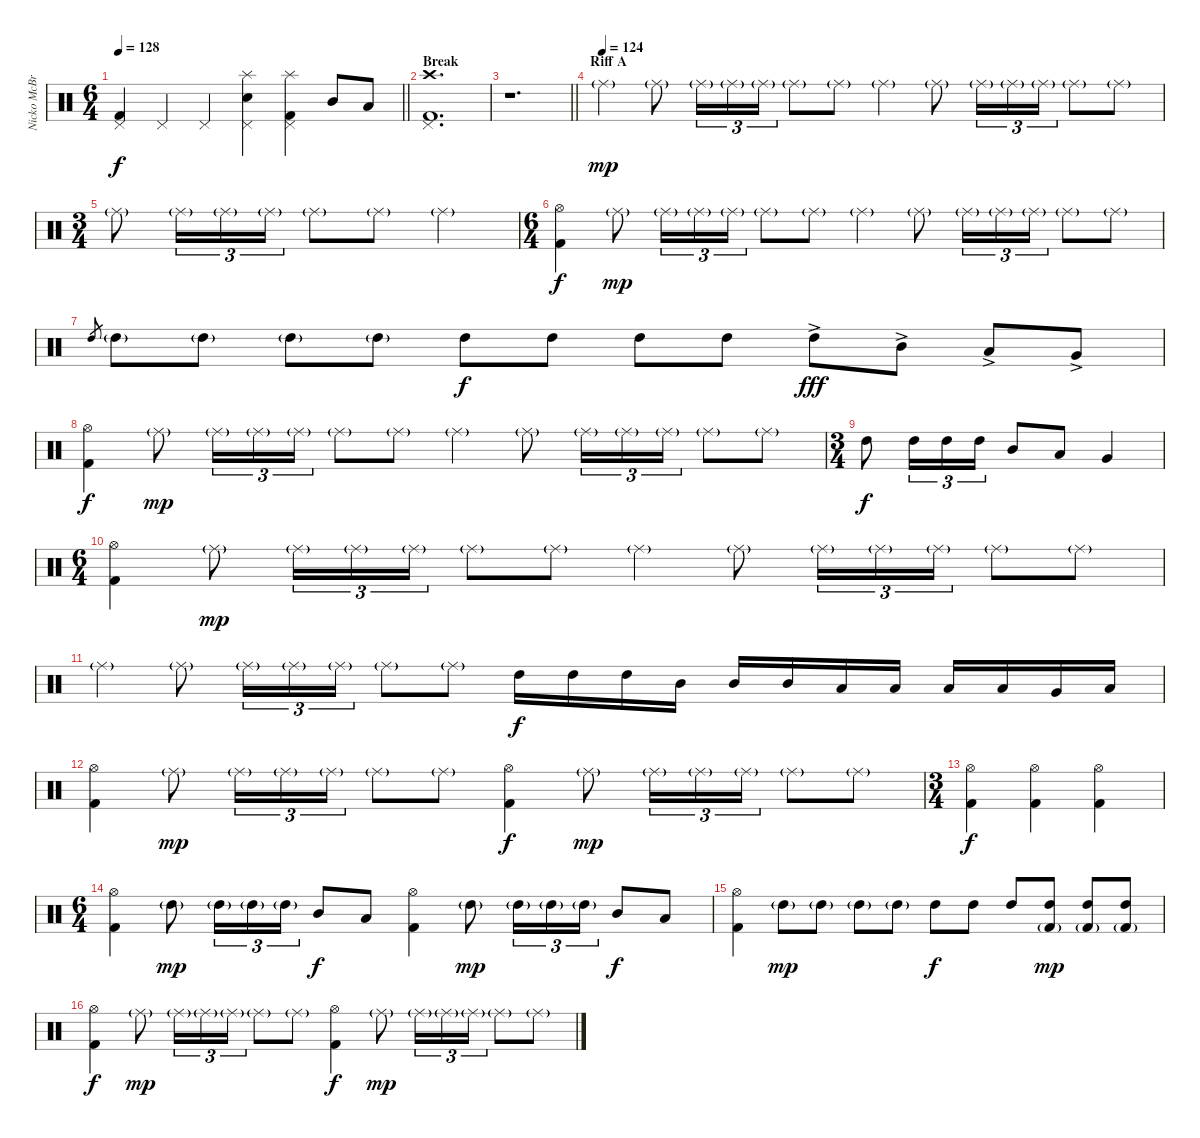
\track ("Nicko McBrain" "Nicko McBr") {instrument percussion}
\staff {score}
\articulation defaults
\ts (6 4)
\tempo 128
\clef neutral
\barLineRight lightlight
\ks c
("Kick (hit) 2" "Pedal Hi-Hat (hit)").4{dy f} "Pedal Hi-Hat (hit)".4 "Pedal Hi-Hat (hit)".4 ("Snare (hit) 2" "Pedal Hi-Hat (hit)" "Splash (hit)").4 ("Kick (hit) 2" "Pedal Hi-Hat (hit)" "Splash (hit)").4 "Mid Tom (hit)".8 "Low Tom (hit)".8 |
\section ("" "Break")
("Kick (hit) 2" "Pedal Hi-Hat (hit)" "Crash high (hit)").1{d} |
\barLineRight lightlight
r.1{d} |
\section ("" "Riff A")
\tempo (124)
"Ride (middle)"{g}.4{dy mp} "Ride (middle)"{g}.8 "Ride (middle)"{g}.16{tu (3 2)} "Ride (middle)"{g}.16{tu (3 2)} "Ride (middle)"{g}.16{tu (3 2)} "Ride (middle)"{g}.8 "Ride (middle)"{g}.8 "Ride (middle)"{g}.4 "Ride (middle)"{g}.8 "Ride (middle)"{g}.16{tu (3 2)} "Ride (middle)"{g}.16{tu (3 2)} "Ride (middle)"{g}.16{tu (3 2)} "Ride (middle)"{g}.8 "Ride (middle)"{g}.8 |
\ts (3 4)
"Ride (middle)"{g}.8 "Ride (middle)"{g}.16{tu (3 2)} "Ride (middle)"{g}.16{tu (3 2)} "Ride (middle)"{g}.16{tu (3 2)} "Ride (middle)"{g}.8 "Ride (middle)"{g}.8 "Ride (middle)"{g}.4 |
\ts (6 4)
("Kick (hit) 2" "Hi-Hat (open)").4{dy f} "Ride (middle)"{g}.8{dy mp} "Ride (middle)"{g}.16{tu (3 2)} "Ride (middle)"{g}.16{tu (3 2)} "Ride (middle)"{g}.16{tu (3 2)} "Ride (middle)"{g}.8 "Ride (middle)"{g}.8 "Ride (middle)"{g}.4 "Ride (middle)"{g}.8 "Ride (middle)"{g}.16{tu (3 2)} "Ride (middle)"{g}.16{tu (3 2)} "Ride (middle)"{g}.16{tu (3 2)} "Ride (middle)"{g}.8 "Ride (middle)"{g}.8 |
"High Tom (hit)".8{gr} "High Tom (hit)"{g}.8 "High Tom (hit)"{g}.8 "High Tom (hit)"{g}.8 "High Tom (hit)"{g}.8 "High Tom (hit)".8{dy f} "High Tom (hit)".8 "High Tom (hit)".8 "High Tom (hit)".8 "High Tom (hit)"{ac}.8{dy fff} "Mid Tom (hit)"{ac}.8 "Low Tom (hit)"{ac}.8 "Very Low Tom (hit)"{ac}.8 |
("Kick (hit) 2" "Hi-Hat (open)").4{dy f} "Ride (middle)"{g}.8{dy mp} "Ride (middle)"{g}.16{tu (3 2)} "Ride (middle)"{g}.16{tu (3 2)} "Ride (middle)"{g}.16{tu (3 2)} "Ride (middle)"{g}.8 "Ride (middle)"{g}.8 "Ride (middle)"{g}.4 "Ride (middle)"{g}.8 "Ride (middle)"{g}.16{tu (3 2)} "Ride (middle)"{g}.16{tu (3 2)} "Ride (middle)"{g}.16{tu (3 2)} "Ride (middle)"{g}.8 "Ride (middle)"{g}.8 |
\ts (3 4)
"High Tom (hit)".8{dy f} "High Tom (hit)".16{tu (3 2)} "High Tom (hit)".16{tu (3 2)} "High Tom (hit)".16{tu (3 2)} "Mid Tom (hit)".8 "Low Tom (hit)".8 "Very Low Tom (hit)".4 |
\ts (6 4)
("Kick (hit) 2" "Hi-Hat (open)").4 "Ride (middle)"{g}.8{dy mp} "Ride (middle)"{g}.16{tu (3 2)} "Ride (middle)"{g}.16{tu (3 2)} "Ride (middle)"{g}.16{tu (3 2)} "Ride (middle)"{g}.8 "Ride (middle)"{g}.8 "Ride (middle)"{g}.4 "Ride (middle)"{g}.8 "Ride (middle)"{g}.16{tu (3 2)} "Ride (middle)"{g}.16{tu (3 2)} "Ride (middle)"{g}.16{tu (3 2)} "Ride (middle)"{g}.8 "Ride (middle)"{g}.8 |
"Ride (middle)"{g}.4 "Ride (middle)"{g}.8 "Ride (middle)"{g}.16{tu (3 2)} "Ride (middle)"{g}.16{tu (3 2)} "Ride (middle)"{g}.16{tu (3 2)} "Ride (middle)"{g}.8 "Ride (middle)"{g}.8 "High Tom (hit)".16{dy f} "High Tom (hit)".16 "High Tom (hit)".16 "Mid Tom (hit)".16 "Mid Tom (hit)".16 "Mid Tom (hit)".16 "Low Tom (hit)".16 "Low Tom (hit)".16 "Low Tom (hit)".16 "Low Tom (hit)".16 "Very Low Tom (hit)".16 "Low Floor Tom (hit)".16 |
("Kick (hit) 2" "Hi-Hat (open)").4 "Ride (middle)"{g}.8{dy mp} "Ride (middle)"{g}.16{tu (3 2)} "Ride (middle)"{g}.16{tu (3 2)} "Ride (middle)"{g}.16{tu (3 2)} "Ride (middle)"{g}.8 "Ride (middle)"{g}.8 ("Kick (hit) 2" "Hi-Hat (open)").4{dy f} "Ride (middle)"{g}.8{dy mp} "Ride (middle)"{g}.16{tu (3 2)} "Ride (middle)"{g}.16{tu (3 2)} "Ride (middle)"{g}.16{tu (3 2)} "Ride (middle)"{g}.8 "Ride (middle)"{g}.8 |
\ts (3 4)
("Kick (hit) 2" "Hi-Hat (open)").4{dy f} ("Kick (hit) 2" "Hi-Hat (open)").4 ("Kick (hit) 2" "Hi-Hat (open)").4 |
\ts (6 4)
("Kick (hit) 2" "Hi-Hat (open)").4 "High Tom (hit)"{g}.8{dy mp} "High Tom (hit)"{g}.16{tu (3 2)} "High Tom (hit)"{g}.16{tu (3 2)} "High Tom (hit)"{g}.16{tu (3 2)} "Mid Tom (hit)".8{dy f} "Low Tom (hit)".8 ("Kick (hit) 2" "Hi-Hat (open)").4 "High Tom (hit)"{g}.8{dy mp} "High Tom (hit)"{g}.16{tu (3 2)} "High Tom (hit)"{g}.16{tu (3 2)} "High Tom (hit)"{g}.16{tu (3 2)} "Mid Tom (hit)".8{dy f} "Low Tom (hit)".8 |
("Kick (hit) 2" "Hi-Hat (open)").4 "High Tom (hit)"{g}.8{dy mp} "High Tom (hit)"{g}.8 "High Tom (hit)"{g}.8 "High Tom (hit)"{g}.8 "High Tom (hit)".8{dy f} "High Tom (hit)".8 "High Tom (hit)".8 ("High Tom (hit)" "Kick (hit) 2"{g}).8{dy mp} ("High Tom (hit)" "Kick (hit) 2"{g}).8 ("High Tom (hit)" "Kick (hit) 2"{g}).8 |
("Kick (hit) 2" "Hi-Hat (open)").4{dy f} "Ride (middle)"{g}.8{dy mp} "Ride (middle)"{g}.16{tu (3 2)} "Ride (middle)"{g}.16{tu (3 2)} "Ride (middle)"{g}.16{tu (3 2)} "Ride (middle)"{g}.8 "Ride (middle)"{g}.8 ("Kick (hit) 2" "Hi-Hat (open)").4{dy f} "Ride (middle)"{g}.8{dy mp} "Ride (middle)"{g}.16{tu (3 2)} "Ride (middle)"{g}.16{tu (3 2)} "Ride (middle)"{g}.16{tu (3 2)} "Ride (middle)"{g}.8 "Ride (middle)"{g}.8
